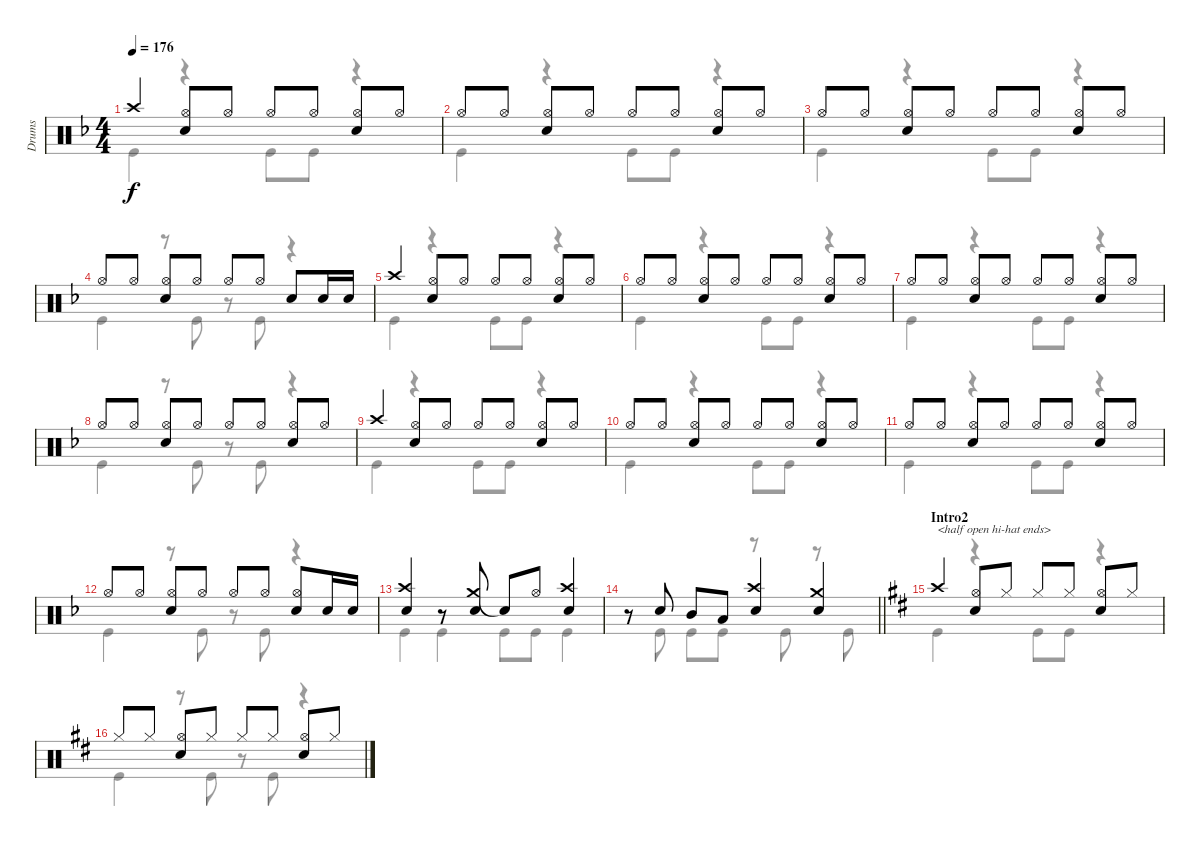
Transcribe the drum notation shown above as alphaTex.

\track ("Drums" "Drums") {instrument percussion}
\staff {score}
\articulation defaults
\voice
\ts (4 4)
\tempo 176
\clef neutral
\ks f "Crash high (hit)".4{dy f}
("Hi-Hat (open)" "Snare (hit) 2").8 "Hi-Hat (open)".8 "Hi-Hat (open)".8 "Hi-Hat (open)".8 ("Hi-Hat (open)" "Snare (hit) 2").8 "Hi-Hat (open)".8 |
"Hi-Hat (open)".8 "Hi-Hat (open)".8 ("Hi-Hat (open)" "Snare (hit) 2").8 "Hi-Hat (open)".8 "Hi-Hat (open)".8 "Hi-Hat (open)".8 ("Hi-Hat (open)" "Snare (hit) 2").8 "Hi-Hat (open)".8 |
"Hi-Hat (open)".8 "Hi-Hat (open)".8 ("Hi-Hat (open)" "Snare (hit) 2").8 "Hi-Hat (open)".8 "Hi-Hat (open)".8 "Hi-Hat (open)".8 ("Hi-Hat (open)" "Snare (hit) 2").8 "Hi-Hat (open)".8 |
"Hi-Hat (open)".8 "Hi-Hat (open)".8 ("Hi-Hat (open)" "Snare (hit) 2").8 "Hi-Hat (open)".8 "Hi-Hat (open)".8 "Hi-Hat (open)".8 "Snare (hit) 2".8 "Snare (hit) 2".16 "Snare (hit) 2".16 |
"Crash high (hit)".4 ("Hi-Hat (open)" "Snare (hit) 2").8 "Hi-Hat (open)".8 "Hi-Hat (open)".8 "Hi-Hat (open)".8 ("Hi-Hat (open)" "Snare (hit) 2").8 "Hi-Hat (open)".8 |
"Hi-Hat (open)".8 "Hi-Hat (open)".8 ("Hi-Hat (open)" "Snare (hit) 2").8 "Hi-Hat (open)".8 "Hi-Hat (open)".8 "Hi-Hat (open)".8 ("Hi-Hat (open)" "Snare (hit) 2").8 "Hi-Hat (open)".8 |
"Hi-Hat (open)".8 "Hi-Hat (open)".8 ("Hi-Hat (open)" "Snare (hit) 2").8 "Hi-Hat (open)".8 "Hi-Hat (open)".8 "Hi-Hat (open)".8 ("Hi-Hat (open)" "Snare (hit) 2").8 "Hi-Hat (open)".8 |
"Hi-Hat (open)".8 "Hi-Hat (open)".8 ("Hi-Hat (open)" "Snare (hit) 2").8 "Hi-Hat (open)".8 "Hi-Hat (open)".8 "Hi-Hat (open)".8 ("Hi-Hat (open)" "Snare (hit) 2").8 "Hi-Hat (open)".8 |
"Crash high (hit)".4 ("Hi-Hat (open)" "Snare (hit) 2").8 "Hi-Hat (open)".8 "Hi-Hat (open)".8 "Hi-Hat (open)".8 ("Hi-Hat (open)" "Snare (hit) 2").8 "Hi-Hat (open)".8 |
"Hi-Hat (open)".8 "Hi-Hat (open)".8 ("Hi-Hat (open)" "Snare (hit) 2").8 "Hi-Hat (open)".8 "Hi-Hat (open)".8 "Hi-Hat (open)".8 ("Hi-Hat (open)" "Snare (hit) 2").8 "Hi-Hat (open)".8 |
"Hi-Hat (open)".8 "Hi-Hat (open)".8 ("Hi-Hat (open)" "Snare (hit) 2").8 "Hi-Hat (open)".8 "Hi-Hat (open)".8 "Hi-Hat (open)".8 ("Hi-Hat (open)" "Snare (hit) 2").8 "Hi-Hat (open)".8 |
"Hi-Hat (open)".8 "Hi-Hat (open)".8 ("Hi-Hat (open)" "Snare (hit) 2").8 "Hi-Hat (open)".8 "Hi-Hat (open)".8 "Hi-Hat (open)".8 ("Hi-Hat (open)" "Snare (hit) 2").8 "Snare (hit) 2".16 "Snare (hit) 2".16 |
("Crash high (hit)" "Snare (hit) 2").4 r.8 ("Crash medium (hit)" "Snare (hit) 2").8 "Snare (hit)"{t}.8 "Hi-Hat (open)".8 ("Crash high (hit)" "Snare (hit) 2").4 |
\barLineRight lightlight
r.8 "Snare (hit) 2".8 "Mid Tom (hit)".8 "Low Tom (hit)".8 ("Crash high (hit)" "Snare (hit) 2").4 ("Crash medium (hit)" "Snare (hit) 2").4 |
\section ("" "Intro2")
\ks d "Crash high (hit)".4{txt "<half open hi-hat ends>"}
("Hi-Hat (open)" "Snare (hit) 2").8 "Hi-Hat (closed)".8 "Hi-Hat (closed)".8 "Hi-Hat (closed)".8 ("Hi-Hat (open)" "Snare (hit) 2").8 "Hi-Hat (closed)".8 |
"Hi-Hat (closed)".8 "Hi-Hat (closed)".8 ("Hi-Hat (open)" "Snare (hit) 2").8 "Hi-Hat (closed)".8 "Hi-Hat (closed)".8 "Hi-Hat (closed)".8 ("Hi-Hat (open)" "Snare (hit) 2").8 "Hi-Hat (closed)".8
\voice
\clef neutral
\ottava regular
\simile none
\ks f "Kick (hit)".4{dy f}
r.4 "Kick (hit)".8 "Kick (hit)".8 r.4 |
"Kick (hit)".4 r.4 "Kick (hit)".8 "Kick (hit)".8 r.4 |
"Kick (hit)".4 r.4 "Kick (hit)".8 "Kick (hit)".8 r.4 |
"Kick (hit)".4 r.8 "Kick (hit)".8 r.8 "Kick (hit)".8 r.4 |
"Kick (hit)".4 r.4 "Kick (hit)".8 "Kick (hit)".8 r.4 |
"Kick (hit)".4 r.4 "Kick (hit)".8 "Kick (hit)".8 r.4 |
"Kick (hit)".4 r.4 "Kick (hit)".8 "Kick (hit)".8 r.4 |
"Kick (hit)".4 r.8 "Kick (hit)".8 r.8 "Kick (hit)".8 r.4 |
"Kick (hit)".4 r.4 "Kick (hit)".8 "Kick (hit)".8 r.4 |
"Kick (hit)".4 r.4 "Kick (hit)".8 "Kick (hit)".8 r.4 |
"Kick (hit)".4 r.4 "Kick (hit)".8 "Kick (hit)".8 r.4 |
"Kick (hit)".4 r.8 "Kick (hit)".8 r.8 "Kick (hit)".8 r.4 |
"Kick (hit)".4 "Kick (hit)".4 "Kick (hit)".8 "Kick (hit)".8 "Kick (hit)".4 |
\barLineRight lightlight
r.8 "Kick (hit)".8 "Kick (hit)".8 "Kick (hit)".8 r.8 "Kick (hit)".8 r.8 "Kick (hit)".8 |
\ks d "Kick (hit)".4
r.4 "Kick (hit)".8 "Kick (hit)".8 r.4 |
"Kick (hit)".4 r.8 "Kick (hit)".8 r.8 "Kick (hit)".8 r.4
